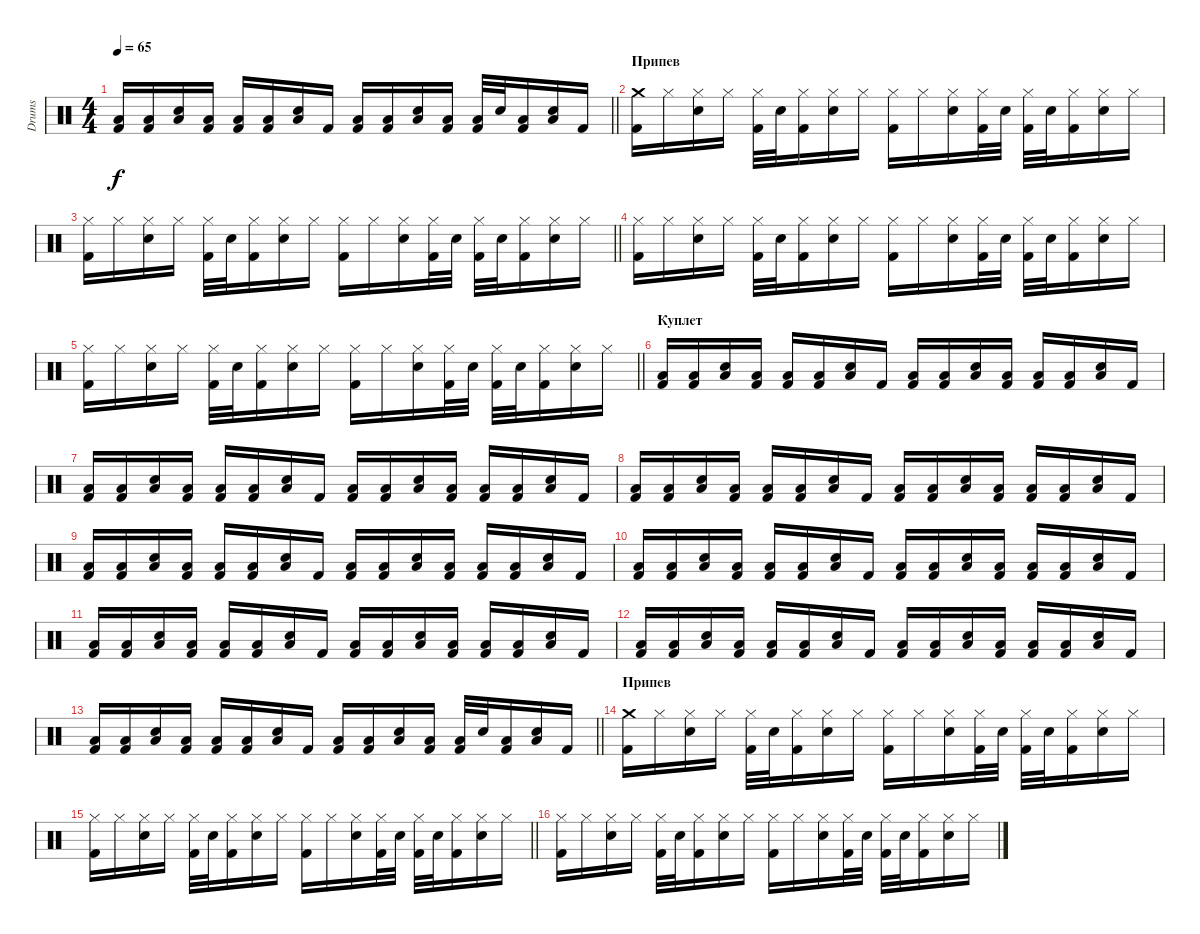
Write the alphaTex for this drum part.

\track ("Drums" "Drums") {instrument percussion}
\staff {score}
\articulation defaults
\ts (4 4)
\tempo 65
\clef neutral
\barLineRight lightlight
\ks c
("Low Tom (hit)" "Kick (hit) 2").16{dy f} ("Low Tom (hit)" "Kick (hit) 2").16 ("Low Tom (hit)" "Snare (hit) 2").16 ("Low Tom (hit)" "Kick (hit) 2").16 ("Low Tom (hit)" "Kick (hit) 2").16 ("Low Tom (hit)" "Kick (hit) 2").16 ("Low Tom (hit)" "Snare (hit) 2").16 "Kick (hit) 2".16 ("Low Tom (hit)" "Kick (hit) 2").16 ("Low Tom (hit)" "Kick (hit) 2").16 ("Low Tom (hit)" "Snare (hit) 2").16 ("Low Tom (hit)" "Kick (hit) 2").16 ("Low Tom (hit)" "Kick (hit) 2").32 "Snare (hit) 2".32 ("Low Tom (hit)" "Kick (hit) 2").16 ("Low Tom (hit)" "Snare (hit) 2").16 "Kick (hit) 2".16 |
\section ("" "Припев")
("Crash medium (hit)" "Kick (hit) 2").16 "Hi-Hat (closed)".16 ("Hi-Hat (closed)" "Snare (hit) 2").16 "Hi-Hat (closed)".16 ("Hi-Hat (closed)" "Kick (hit) 2").32 "Snare (hit) 2".32 ("Hi-Hat (closed)" "Kick (hit) 2").16 ("Hi-Hat (closed)" "Snare (hit) 2").16 "Hi-Hat (closed)".16 ("Hi-Hat (closed)" "Kick (hit) 2").16 "Hi-Hat (closed)".16 ("Hi-Hat (closed)" "Snare (hit) 2").16 ("Hi-Hat (closed)" "Kick (hit) 2").32 "Snare (hit) 2".32 ("Hi-Hat (closed)" "Kick (hit) 2").32 "Snare (hit) 2".32 ("Hi-Hat (closed)" "Kick (hit) 2").16 ("Hi-Hat (closed)" "Snare (hit) 2").16 "Hi-Hat (closed)".16 |
\barLineRight lightlight
("Hi-Hat (closed)" "Kick (hit) 2").16 "Hi-Hat (closed)".16 ("Hi-Hat (closed)" "Snare (hit) 2").16 "Hi-Hat (closed)".16 ("Hi-Hat (closed)" "Kick (hit) 2").32 "Snare (hit) 2".32 ("Hi-Hat (closed)" "Kick (hit) 2").16 ("Hi-Hat (closed)" "Snare (hit) 2").16 "Hi-Hat (closed)".16 ("Hi-Hat (closed)" "Kick (hit) 2").16 "Hi-Hat (closed)".16 ("Hi-Hat (closed)" "Snare (hit) 2").16 ("Hi-Hat (closed)" "Kick (hit) 2").32 "Snare (hit) 2".32 ("Hi-Hat (closed)" "Kick (hit) 2").32 "Snare (hit) 2".32 ("Hi-Hat (closed)" "Kick (hit) 2").16 ("Hi-Hat (closed)" "Snare (hit) 2").16 "Hi-Hat (closed)".16 |
("Hi-Hat (closed)" "Kick (hit) 2").16 "Hi-Hat (closed)".16 ("Hi-Hat (closed)" "Snare (hit) 2").16 "Hi-Hat (closed)".16 ("Hi-Hat (closed)" "Kick (hit) 2").32 "Snare (hit) 2".32 ("Hi-Hat (closed)" "Kick (hit) 2").16 ("Hi-Hat (closed)" "Snare (hit) 2").16 "Hi-Hat (closed)".16 ("Hi-Hat (closed)" "Kick (hit) 2").16 "Hi-Hat (closed)".16 ("Hi-Hat (closed)" "Snare (hit) 2").16 ("Hi-Hat (closed)" "Kick (hit) 2").32 "Snare (hit) 2".32 ("Hi-Hat (closed)" "Kick (hit) 2").32 "Snare (hit) 2".32 ("Hi-Hat (closed)" "Kick (hit) 2").16 ("Hi-Hat (closed)" "Snare (hit) 2").16 "Hi-Hat (closed)".16 |
\barLineRight lightlight
("Hi-Hat (closed)" "Kick (hit) 2").16 "Hi-Hat (closed)".16 ("Hi-Hat (closed)" "Snare (hit) 2").16 "Hi-Hat (closed)".16 ("Hi-Hat (closed)" "Kick (hit) 2").32 "Snare (hit) 2".32 ("Hi-Hat (closed)" "Kick (hit) 2").16 ("Hi-Hat (closed)" "Snare (hit) 2").16 "Hi-Hat (closed)".16 ("Hi-Hat (closed)" "Kick (hit) 2").16 "Hi-Hat (closed)".16 ("Hi-Hat (closed)" "Snare (hit) 2").16 ("Hi-Hat (closed)" "Kick (hit) 2").32 "Snare (hit) 2".32 ("Hi-Hat (closed)" "Kick (hit) 2").32 "Snare (hit) 2".32 ("Hi-Hat (closed)" "Kick (hit) 2").16 ("Hi-Hat (closed)" "Snare (hit) 2").16 "Hi-Hat (closed)".16 |
\section ("" "Куплет")
("Low Tom (hit)" "Kick (hit) 2").16 ("Low Tom (hit)" "Kick (hit) 2").16 ("Low Tom (hit)" "Snare (hit) 2").16 ("Low Tom (hit)" "Kick (hit) 2").16 ("Low Tom (hit)" "Kick (hit) 2").16 ("Low Tom (hit)" "Kick (hit) 2").16 ("Low Tom (hit)" "Snare (hit) 2").16 "Kick (hit) 2".16 ("Low Tom (hit)" "Kick (hit) 2").16 ("Low Tom (hit)" "Kick (hit) 2").16 ("Low Tom (hit)" "Snare (hit) 2").16 ("Low Tom (hit)" "Kick (hit) 2").16 ("Low Tom (hit)" "Kick (hit) 2").16 ("Low Tom (hit)" "Kick (hit) 2").16 ("Low Tom (hit)" "Snare (hit) 2").16 "Kick (hit) 2".16 |
("Low Tom (hit)" "Kick (hit) 2").16 ("Low Tom (hit)" "Kick (hit) 2").16 ("Low Tom (hit)" "Snare (hit) 2").16 ("Low Tom (hit)" "Kick (hit) 2").16 ("Low Tom (hit)" "Kick (hit) 2").16 ("Low Tom (hit)" "Kick (hit) 2").16 ("Low Tom (hit)" "Snare (hit) 2").16 "Kick (hit) 2".16 ("Low Tom (hit)" "Kick (hit) 2").16 ("Low Tom (hit)" "Kick (hit) 2").16 ("Low Tom (hit)" "Snare (hit) 2").16 ("Low Tom (hit)" "Kick (hit) 2").16 ("Low Tom (hit)" "Kick (hit) 2").16 ("Low Tom (hit)" "Kick (hit) 2").16 ("Low Tom (hit)" "Snare (hit) 2").16 "Kick (hit) 2".16 |
("Low Tom (hit)" "Kick (hit) 2").16 ("Low Tom (hit)" "Kick (hit) 2").16 ("Low Tom (hit)" "Snare (hit) 2").16 ("Low Tom (hit)" "Kick (hit) 2").16 ("Low Tom (hit)" "Kick (hit) 2").16 ("Low Tom (hit)" "Kick (hit) 2").16 ("Low Tom (hit)" "Snare (hit) 2").16 "Kick (hit) 2".16 ("Low Tom (hit)" "Kick (hit) 2").16 ("Low Tom (hit)" "Kick (hit) 2").16 ("Low Tom (hit)" "Snare (hit) 2").16 ("Low Tom (hit)" "Kick (hit) 2").16 ("Low Tom (hit)" "Kick (hit) 2").16 ("Low Tom (hit)" "Kick (hit) 2").16 ("Low Tom (hit)" "Snare (hit) 2").16 "Kick (hit) 2".16 |
("Low Tom (hit)" "Kick (hit) 2").16 ("Low Tom (hit)" "Kick (hit) 2").16 ("Low Tom (hit)" "Snare (hit) 2").16 ("Low Tom (hit)" "Kick (hit) 2").16 ("Low Tom (hit)" "Kick (hit) 2").16 ("Low Tom (hit)" "Kick (hit) 2").16 ("Low Tom (hit)" "Snare (hit) 2").16 "Kick (hit) 2".16 ("Low Tom (hit)" "Kick (hit) 2").16 ("Low Tom (hit)" "Kick (hit) 2").16 ("Low Tom (hit)" "Snare (hit) 2").16 ("Low Tom (hit)" "Kick (hit) 2").16 ("Low Tom (hit)" "Kick (hit) 2").16 ("Low Tom (hit)" "Kick (hit) 2").16 ("Low Tom (hit)" "Snare (hit) 2").16 "Kick (hit) 2".16 |
("Low Tom (hit)" "Kick (hit) 2").16 ("Low Tom (hit)" "Kick (hit) 2").16 ("Low Tom (hit)" "Snare (hit) 2").16 ("Low Tom (hit)" "Kick (hit) 2").16 ("Low Tom (hit)" "Kick (hit) 2").16 ("Low Tom (hit)" "Kick (hit) 2").16 ("Low Tom (hit)" "Snare (hit) 2").16 "Kick (hit) 2".16 ("Low Tom (hit)" "Kick (hit) 2").16 ("Low Tom (hit)" "Kick (hit) 2").16 ("Low Tom (hit)" "Snare (hit) 2").16 ("Low Tom (hit)" "Kick (hit) 2").16 ("Low Tom (hit)" "Kick (hit) 2").16 ("Low Tom (hit)" "Kick (hit) 2").16 ("Low Tom (hit)" "Snare (hit) 2").16 "Kick (hit) 2".16 |
("Low Tom (hit)" "Kick (hit) 2").16 ("Low Tom (hit)" "Kick (hit) 2").16 ("Low Tom (hit)" "Snare (hit) 2").16 ("Low Tom (hit)" "Kick (hit) 2").16 ("Low Tom (hit)" "Kick (hit) 2").16 ("Low Tom (hit)" "Kick (hit) 2").16 ("Low Tom (hit)" "Snare (hit) 2").16 "Kick (hit) 2".16 ("Low Tom (hit)" "Kick (hit) 2").16 ("Low Tom (hit)" "Kick (hit) 2").16 ("Low Tom (hit)" "Snare (hit) 2").16 ("Low Tom (hit)" "Kick (hit) 2").16 ("Low Tom (hit)" "Kick (hit) 2").16 ("Low Tom (hit)" "Kick (hit) 2").16 ("Low Tom (hit)" "Snare (hit) 2").16 "Kick (hit) 2".16 |
("Low Tom (hit)" "Kick (hit) 2").16 ("Low Tom (hit)" "Kick (hit) 2").16 ("Low Tom (hit)" "Snare (hit) 2").16 ("Low Tom (hit)" "Kick (hit) 2").16 ("Low Tom (hit)" "Kick (hit) 2").16 ("Low Tom (hit)" "Kick (hit) 2").16 ("Low Tom (hit)" "Snare (hit) 2").16 "Kick (hit) 2".16 ("Low Tom (hit)" "Kick (hit) 2").16 ("Low Tom (hit)" "Kick (hit) 2").16 ("Low Tom (hit)" "Snare (hit) 2").16 ("Low Tom (hit)" "Kick (hit) 2").16 ("Low Tom (hit)" "Kick (hit) 2").16 ("Low Tom (hit)" "Kick (hit) 2").16 ("Low Tom (hit)" "Snare (hit) 2").16 "Kick (hit) 2".16 |
\barLineRight lightlight
("Low Tom (hit)" "Kick (hit) 2").16 ("Low Tom (hit)" "Kick (hit) 2").16 ("Low Tom (hit)" "Snare (hit) 2").16 ("Low Tom (hit)" "Kick (hit) 2").16 ("Low Tom (hit)" "Kick (hit) 2").16 ("Low Tom (hit)" "Kick (hit) 2").16 ("Low Tom (hit)" "Snare (hit) 2").16 "Kick (hit) 2".16 ("Low Tom (hit)" "Kick (hit) 2").16 ("Low Tom (hit)" "Kick (hit) 2").16 ("Low Tom (hit)" "Snare (hit) 2").16 ("Low Tom (hit)" "Kick (hit) 2").16 ("Low Tom (hit)" "Kick (hit) 2").32 "Snare (hit) 2".32 ("Low Tom (hit)" "Kick (hit) 2").16 ("Low Tom (hit)" "Snare (hit) 2").16 "Kick (hit) 2".16 |
\section ("" "Припев")
("Crash medium (hit)" "Kick (hit) 2").16 "Hi-Hat (closed)".16 ("Hi-Hat (closed)" "Snare (hit) 2").16 "Hi-Hat (closed)".16 ("Hi-Hat (closed)" "Kick (hit) 2").32 "Snare (hit) 2".32 ("Hi-Hat (closed)" "Kick (hit) 2").16 ("Hi-Hat (closed)" "Snare (hit) 2").16 "Hi-Hat (closed)".16 ("Hi-Hat (closed)" "Kick (hit) 2").16 "Hi-Hat (closed)".16 ("Hi-Hat (closed)" "Snare (hit) 2").16 ("Hi-Hat (closed)" "Kick (hit) 2").32 "Snare (hit) 2".32 ("Hi-Hat (closed)" "Kick (hit) 2").32 "Snare (hit) 2".32 ("Hi-Hat (closed)" "Kick (hit) 2").16 ("Hi-Hat (closed)" "Snare (hit) 2").16 "Hi-Hat (closed)".16 |
\barLineRight lightlight
("Hi-Hat (closed)" "Kick (hit) 2").16 "Hi-Hat (closed)".16 ("Hi-Hat (closed)" "Snare (hit) 2").16 "Hi-Hat (closed)".16 ("Hi-Hat (closed)" "Kick (hit) 2").32 "Snare (hit) 2".32 ("Hi-Hat (closed)" "Kick (hit) 2").16 ("Hi-Hat (closed)" "Snare (hit) 2").16 "Hi-Hat (closed)".16 ("Hi-Hat (closed)" "Kick (hit) 2").16 "Hi-Hat (closed)".16 ("Hi-Hat (closed)" "Snare (hit) 2").16 ("Hi-Hat (closed)" "Kick (hit) 2").32 "Snare (hit) 2".32 ("Hi-Hat (closed)" "Kick (hit) 2").32 "Snare (hit) 2".32 ("Hi-Hat (closed)" "Kick (hit) 2").16 ("Hi-Hat (closed)" "Snare (hit) 2").16 "Hi-Hat (closed)".16 |
("Hi-Hat (closed)" "Kick (hit) 2").16 "Hi-Hat (closed)".16 ("Hi-Hat (closed)" "Snare (hit) 2").16 "Hi-Hat (closed)".16 ("Hi-Hat (closed)" "Kick (hit) 2").32 "Snare (hit) 2".32 ("Hi-Hat (closed)" "Kick (hit) 2").16 ("Hi-Hat (closed)" "Snare (hit) 2").16 "Hi-Hat (closed)".16 ("Hi-Hat (closed)" "Kick (hit) 2").16 "Hi-Hat (closed)".16 ("Hi-Hat (closed)" "Snare (hit) 2").16 ("Hi-Hat (closed)" "Kick (hit) 2").32 "Snare (hit) 2".32 ("Hi-Hat (closed)" "Kick (hit) 2").32 "Snare (hit) 2".32 ("Hi-Hat (closed)" "Kick (hit) 2").16 ("Hi-Hat (closed)" "Snare (hit) 2").16 "Hi-Hat (closed)".16
